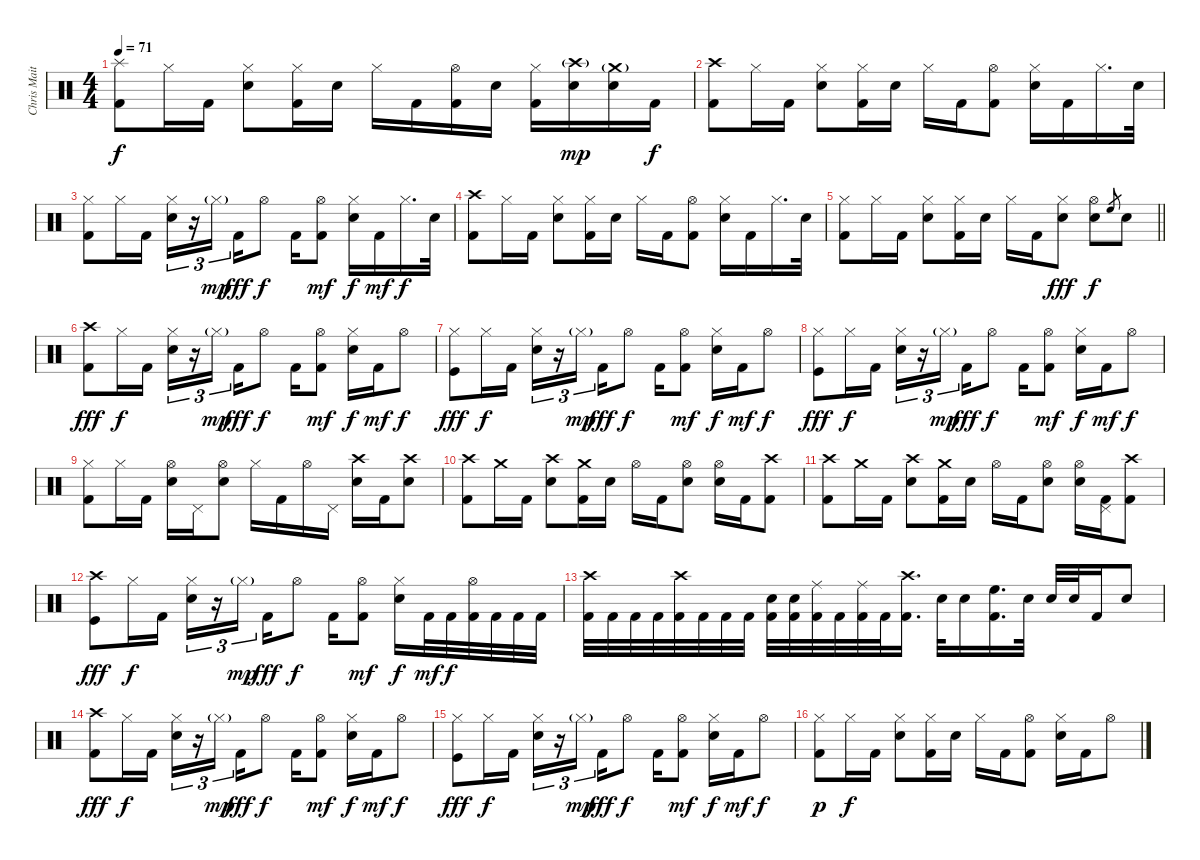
\track ("Chris Maitland" "Chris Mait") {instrument percussion}
\staff {score}
\articulation defaults
\ts (4 4)
\tempo 71
\clef neutral
\ks c
("Splash (hit)" "Kick (hit) 2").8{dy f} "Hi-Hat (closed)".16 "Kick (hit) 2".16 ("Hi-Hat (closed)" "Snare (hit) 2").8 ("Hi-Hat (closed)" "Kick (hit) 2").16 "Snare (hit) 2".16 "Hi-Hat (closed)".16 "Kick (hit) 2".16 ("Hi-Hat (open)" "Kick (hit) 2").16 "Snare (hit) 2".16 ("Hi-Hat (closed)" "Kick (hit) 2").16 ("Crash high (hit)"{g} "Snare (hit) 2").16{dy mp} ("Crash medium (hit)"{g} "Snare (hit) 2").16 "Kick (hit) 2".16{dy f} |
("Crash high (hit)" "Kick (hit) 2").8 "Hi-Hat (closed)".16 "Kick (hit) 2".16 ("Hi-Hat (closed)" "Snare (hit) 2").8 ("Hi-Hat (closed)" "Kick (hit) 2").16 "Snare (hit) 2".16 "Hi-Hat (closed)".16 "Kick (hit) 2".16 ("Hi-Hat (open)" "Kick (hit) 2").8 ("Hi-Hat (closed)" "Snare (hit) 2").16 "Kick (hit) 2".16 "Hi-Hat (closed)".16{d} "Snare (hit) 2".32 |
("Hi-Hat (closed)" "Kick (hit) 2").8 "Hi-Hat (closed)".16 "Kick (hit) 2".16 ("Hi-Hat (closed)" "Snare (hit) 2").16{tu (3 2)} r.16{tu (3 2)} "Hi-Hat (closed)"{g}.16{tu (3 2) dy mp beam splitsecondary} "Kick (hit) 2".16{dy fff} "Hi-Hat (open)".8{dy f} "Kick (hit) 2".16 ("Hi-Hat (open)" "Kick (hit) 2").8{dy mf} ("Hi-Hat (closed)" "Snare (hit) 2").16{dy f} "Kick (hit) 2".16{dy mf} "Hi-Hat (closed)".16{d dy f} "Snare (hit) 2".32 |
("Crash high (hit)" "Kick (hit) 2").8 "Hi-Hat (closed)".16 "Kick (hit) 2".16 ("Hi-Hat (closed)" "Snare (hit) 2").8 ("Hi-Hat (closed)" "Kick (hit) 2").16 "Snare (hit) 2".16 "Hi-Hat (closed)".16 "Kick (hit) 2".16 ("Hi-Hat (open)" "Kick (hit) 2").8 ("Hi-Hat (closed)" "Snare (hit) 2").16 "Kick (hit) 2".16 "Hi-Hat (closed)".16{d} "Snare (hit) 2".32 |
\barLineRight lightlight
("Hi-Hat (closed)" "Kick (hit) 2").8 "Hi-Hat (closed)".16 "Kick (hit) 2".16 ("Hi-Hat (closed)" "Snare (hit) 2").8 ("Hi-Hat (closed)" "Kick (hit) 2").16 "Snare (hit) 2".16 "Hi-Hat (closed)".16 "Kick (hit) 2".16 ("Hi-Hat (closed)" "Snare (hit) 2").8{dy fff} ("Hi-Hat (open)" "Snare (hit) 2").8{dy f} "High Floor Tom (hit)".8{gr} "Snare (hit) 2".8 |
("Crash high (hit)" "Kick (hit) 2").8{dy fff} "Hi-Hat (closed)".16{dy f} "Kick (hit) 2".16 ("Hi-Hat (closed)" "Snare (hit) 2").16{tu (3 2)} r.16{tu (3 2)} "Hi-Hat (closed)"{g}.16{tu (3 2) dy mp beam splitsecondary} "Kick (hit) 2".16{dy fff} "Hi-Hat (open)".8{dy f} "Kick (hit) 2".16 ("Hi-Hat (open)" "Kick (hit) 2").8{dy mf} ("Hi-Hat (closed)" "Snare (hit) 2").16{dy f} "Kick (hit) 2".16{dy mf} "Hi-Hat (open)".8{dy f} |
("Hi-Hat (closed)" "Kick (hit)").8{dy fff} "Hi-Hat (closed)".16{dy f} "Kick (hit) 2".16 ("Hi-Hat (closed)" "Snare (hit) 2").16{tu (3 2)} r.16{tu (3 2)} "Hi-Hat (closed)"{g}.16{tu (3 2) dy mp beam splitsecondary} "Kick (hit) 2".16{dy fff} "Hi-Hat (open)".8{dy f} "Kick (hit) 2".16 ("Hi-Hat (open)" "Kick (hit) 2").8{dy mf} ("Hi-Hat (closed)" "Snare (hit) 2").16{dy f} "Kick (hit) 2".16{dy mf} "Hi-Hat (open)".8{dy f} |
("Hi-Hat (closed)" "Kick (hit)").8{dy fff} "Hi-Hat (closed)".16{dy f} "Kick (hit) 2".16 ("Hi-Hat (closed)" "Snare (hit) 2").16{tu (3 2)} r.16{tu (3 2)} "Hi-Hat (closed)"{g}.16{tu (3 2) dy mp beam splitsecondary} "Kick (hit) 2".16{dy fff} "Hi-Hat (open)".8{dy f} "Kick (hit) 2".16 ("Hi-Hat (open)" "Kick (hit) 2").8{dy mf} ("Hi-Hat (closed)" "Snare (hit) 2").16{dy f} "Kick (hit) 2".16{dy mf} "Hi-Hat (open)".8{dy f} |
("Hi-Hat (closed)" "Kick (hit) 2").8 "Hi-Hat (closed)".16 "Kick (hit) 2".16 ("Hi-Hat (open)" "Snare (hit) 2").16 "Pedal Hi-Hat (hit)".16 ("Hi-Hat (open)" "Snare (hit) 2").8 "Hi-Hat (closed)".16 "Kick (hit) 2".16 "Hi-Hat (open)".16 "Pedal Hi-Hat (hit)".16 ("Crash high (hit)" "Snare (hit) 2").16 "Kick (hit) 2".16 ("Crash high (hit)" "Snare (hit) 2").8 |
("Crash high (hit)" "Kick (hit) 2").8 "Crash medium (hit)".16 "Kick (hit) 2".16 ("Crash high (hit)" "Snare (hit) 2").8 ("Crash medium (hit)" "Kick (hit) 2").16 "Snare (hit) 2".16 "Hi-Hat (open)".16 "Kick (hit) 2".16 ("Hi-Hat (open)" "Snare (hit) 2").8 ("Hi-Hat (open)" "Snare (hit) 2").16 "Kick (hit) 2".16 ("Crash high (hit)" "Kick (hit) 2").8 |
("Crash high (hit)" "Kick (hit) 2").8 "Crash medium (hit)".16 "Kick (hit) 2".16 ("Crash high (hit)" "Snare (hit) 2").8 ("Crash medium (hit)" "Kick (hit) 2").16 "Snare (hit) 2".16 "Hi-Hat (open)".16 "Kick (hit) 2".16 ("Hi-Hat (open)" "Snare (hit) 2").8 ("Hi-Hat (open)" "Snare (hit) 2").16 ("Pedal Hi-Hat (hit)" "Kick (hit) 2").16 ("Crash high (hit)" "Kick (hit) 2").8 |
("Crash high (hit)" "Kick (hit)").8{dy fff} "Hi-Hat (closed)".16{dy f} "Kick (hit) 2".16 ("Hi-Hat (closed)" "Snare (hit) 2").16{tu (3 2)} r.16{tu (3 2)} "Hi-Hat (closed)"{g}.16{tu (3 2) dy mp beam splitsecondary} "Kick (hit) 2".16{dy fff} "Hi-Hat (open)".8{dy f} "Kick (hit) 2".16 ("Hi-Hat (open)" "Kick (hit) 2").8{dy mf} ("Hi-Hat (closed)" "Snare (hit) 2").16{dy f} "Kick (hit) 2".32{dy mf} "Kick (hit) 2".32{dy f} ("Hi-Hat (open)" "Kick (hit) 2").32 "Kick (hit) 2".32 "Kick (hit) 2".32 "Kick (hit) 2".32 |
("Crash high (hit)" "Kick (hit) 2").32 "Kick (hit) 2".32 "Kick (hit) 2".32 "Kick (hit) 2".32 ("Crash high (hit)" "Kick (hit) 2").32 "Kick (hit) 2".32 "Kick (hit) 2".32 "Kick (hit) 2".32 ("Snare (hit) 2" "Kick (hit) 2").32 ("Snare (hit) 2" "Kick (hit) 2").32 ("Ride (middle)" "Kick (hit) 2").32 "Kick (hit) 2".32 ("Ride (middle)" "Kick (hit) 2").32 "Kick (hit) 2".32 ("Crash high (hit)" "Kick (hit) 2").16{d} "Snare (hit) 2".32 "Snare (hit) 2".16 ("High Floor Tom (hit)" "Kick (hit) 2").16{d} "Snare (hit) 2".32 "Snare (hit) 2".32 "Snare (hit) 2".32 "Kick (hit) 2".16 "Snare (hit) 2".8 |
("Crash high (hit)" "Kick (hit) 2").8{dy fff} "Hi-Hat (closed)".16{dy f} "Kick (hit) 2".16 ("Hi-Hat (closed)" "Snare (hit) 2").16{tu (3 2)} r.16{tu (3 2)} "Hi-Hat (closed)"{g}.16{tu (3 2) dy mp beam splitsecondary} "Kick (hit) 2".16{dy fff} "Hi-Hat (open)".8{dy f} "Kick (hit) 2".16 ("Hi-Hat (open)" "Kick (hit) 2").8{dy mf} ("Hi-Hat (closed)" "Snare (hit) 2").16{dy f} "Kick (hit) 2".16{dy mf} "Hi-Hat (open)".8{dy f} |
("Hi-Hat (closed)" "Kick (hit)").8{dy fff} "Hi-Hat (closed)".16{dy f} "Kick (hit) 2".16 ("Hi-Hat (closed)" "Snare (hit) 2").16{tu (3 2)} r.16{tu (3 2)} "Hi-Hat (closed)"{g}.16{tu (3 2) dy mp beam splitsecondary} "Kick (hit) 2".16{dy fff} "Hi-Hat (open)".8{dy f} "Kick (hit) 2".16 ("Hi-Hat (open)" "Kick (hit) 2").8{dy mf} ("Hi-Hat (closed)" "Snare (hit) 2").16{dy f} "Kick (hit) 2".16{dy mf} "Hi-Hat (open)".8{dy f} |
("Hi-Hat (closed)" "Kick (hit) 2").8{dy p} "Hi-Hat (closed)".16{dy f} "Kick (hit) 2".16 ("Hi-Hat (closed)" "Snare (hit) 2").8 ("Hi-Hat (closed)" "Kick (hit) 2").16 "Snare (hit) 2".16 "Hi-Hat (closed)".16 "Kick (hit) 2".16 ("Hi-Hat (open)" "Kick (hit) 2").8 ("Hi-Hat (closed)" "Snare (hit) 2").16 "Kick (hit) 2".16 "Hi-Hat (open)".8
